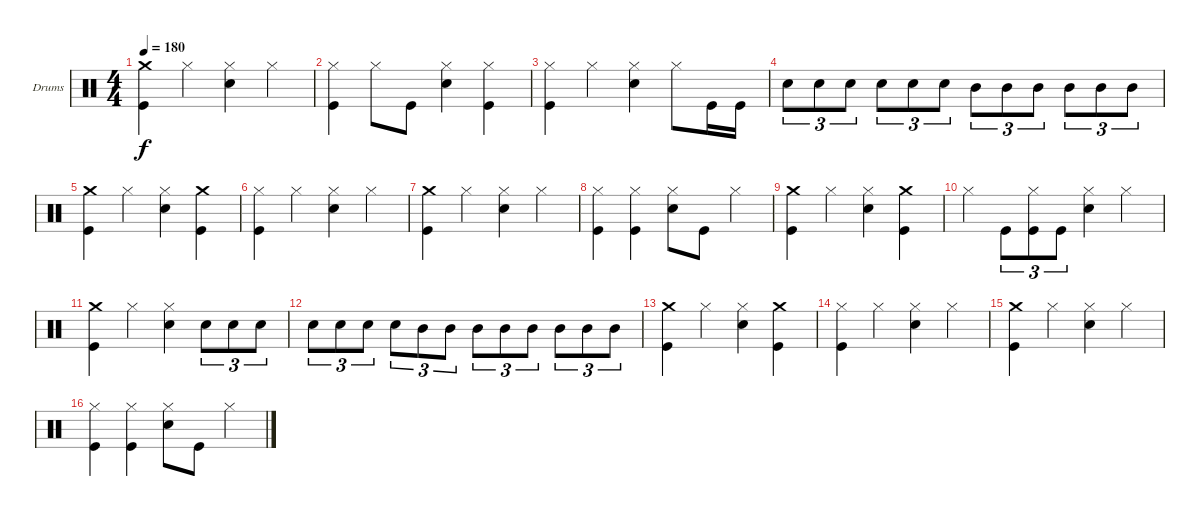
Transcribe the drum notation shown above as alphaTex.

\bracketExtendMode groupsimilarinstruments
\firstSystemTrackNameOrientation horizontal
\otherSystemsTrackNameOrientation horizontal
\track ("Drumkit" "Drums") {instrument percussion}
\staff {score}
\articulation defaults
\ts (4 4)
\tempo 180
\clef neutral
\ks c
("Crash medium (hit)" "Kick (hit)").4{dy f} "Hi-Hat (closed)".4 ("Hi-Hat (closed)" "Snare (hit) 2").4 "Hi-Hat (closed)".4 |
("Hi-Hat (closed)" "Kick (hit)").4 "Hi-Hat (closed)".8 "Kick (hit)".8 ("Hi-Hat (closed)" "Snare (hit) 2").4 ("Hi-Hat (closed)" "Kick (hit)").4 |
("Hi-Hat (closed)" "Kick (hit)").4 "Hi-Hat (closed)".4 ("Hi-Hat (closed)" "Snare (hit) 2").4 "Hi-Hat (closed)".8 "Kick (hit)".16 "Kick (hit)".16 |
"Snare (hit) 2".8{tu (3 2)} "Snare (hit) 2".8{tu (3 2)} "Snare (hit) 2".8{tu (3 2)} "Snare (hit) 2".8{tu (3 2)} "Snare (hit) 2".8{tu (3 2)} "Snare (hit) 2".8{tu (3 2)} "Mid Tom (hit)".8{tu (3 2)} "Mid Tom (hit)".8{tu (3 2)} "Mid Tom (hit)".8{tu (3 2)} "Mid Tom (hit)".8{tu (3 2)} "Mid Tom (hit)".8{tu (3 2)} "Mid Tom (hit)".8{tu (3 2)} |
("Crash medium (hit)" "Kick (hit)").4 "Hi-Hat (closed)".4 ("Hi-Hat (closed)" "Snare (hit) 2").4 ("Crash medium (hit)" "Kick (hit)").4 |
("Hi-Hat (closed)" "Kick (hit)").4 "Hi-Hat (closed)".4 ("Hi-Hat (closed)" "Snare (hit) 2").4 "Hi-Hat (closed)".4 |
("Crash medium (hit)" "Kick (hit)").4 "Hi-Hat (closed)".4 ("Hi-Hat (closed)" "Snare (hit) 2").4 "Hi-Hat (closed)".4 |
("Hi-Hat (closed)" "Kick (hit)").4 ("Hi-Hat (closed)" "Kick (hit)").4 ("Hi-Hat (closed)" "Snare (hit) 2").8 "Kick (hit)".8 "Hi-Hat (closed)".4 |
("Crash medium (hit)" "Kick (hit)").4 "Hi-Hat (closed)".4 ("Hi-Hat (closed)" "Snare (hit) 2").4 ("Crash medium (hit)" "Kick (hit)").4 |
"Hi-Hat (closed)".4 "Kick (hit)".8{tu (3 2)} ("Hi-Hat (closed)" "Kick (hit)").8{tu (3 2)} "Kick (hit)".8{tu (3 2)} ("Hi-Hat (closed)" "Snare (hit) 2").4 "Hi-Hat (closed)".4 |
("Crash medium (hit)" "Kick (hit)").4 "Hi-Hat (closed)".4 ("Hi-Hat (closed)" "Snare (hit) 2").4 "Snare (hit) 2".8{tu (3 2)} "Snare (hit) 2".8{tu (3 2)} "Snare (hit) 2".8{tu (3 2)} |
"Snare (hit) 2".8{tu (3 2)} "Snare (hit) 2".8{tu (3 2)} "Snare (hit) 2".8{tu (3 2)} "Snare (hit) 2".8{tu (3 2)} "Mid Tom (hit)".8{tu (3 2)} "Mid Tom (hit)".8{tu (3 2)} "Mid Tom (hit)".8{tu (3 2)} "Mid Tom (hit)".8{tu (3 2)} "Mid Tom (hit)".8{tu (3 2)} "Mid Tom (hit)".8{tu (3 2)} "Mid Tom (hit)".8{tu (3 2)} "Mid Tom (hit)".8{tu (3 2)} |
("Crash medium (hit)" "Kick (hit)").4 "Hi-Hat (closed)".4 ("Hi-Hat (closed)" "Snare (hit) 2").4 ("Crash medium (hit)" "Kick (hit)").4 |
("Hi-Hat (closed)" "Kick (hit)").4 "Hi-Hat (closed)".4 ("Hi-Hat (closed)" "Snare (hit) 2").4 "Hi-Hat (closed)".4 |
("Crash medium (hit)" "Kick (hit)").4 "Hi-Hat (closed)".4 ("Hi-Hat (closed)" "Snare (hit) 2").4 "Hi-Hat (closed)".4 |
("Hi-Hat (closed)" "Kick (hit)").4 ("Hi-Hat (closed)" "Kick (hit)").4 ("Hi-Hat (closed)" "Snare (hit) 2").8 "Kick (hit)".8 "Hi-Hat (closed)".4
